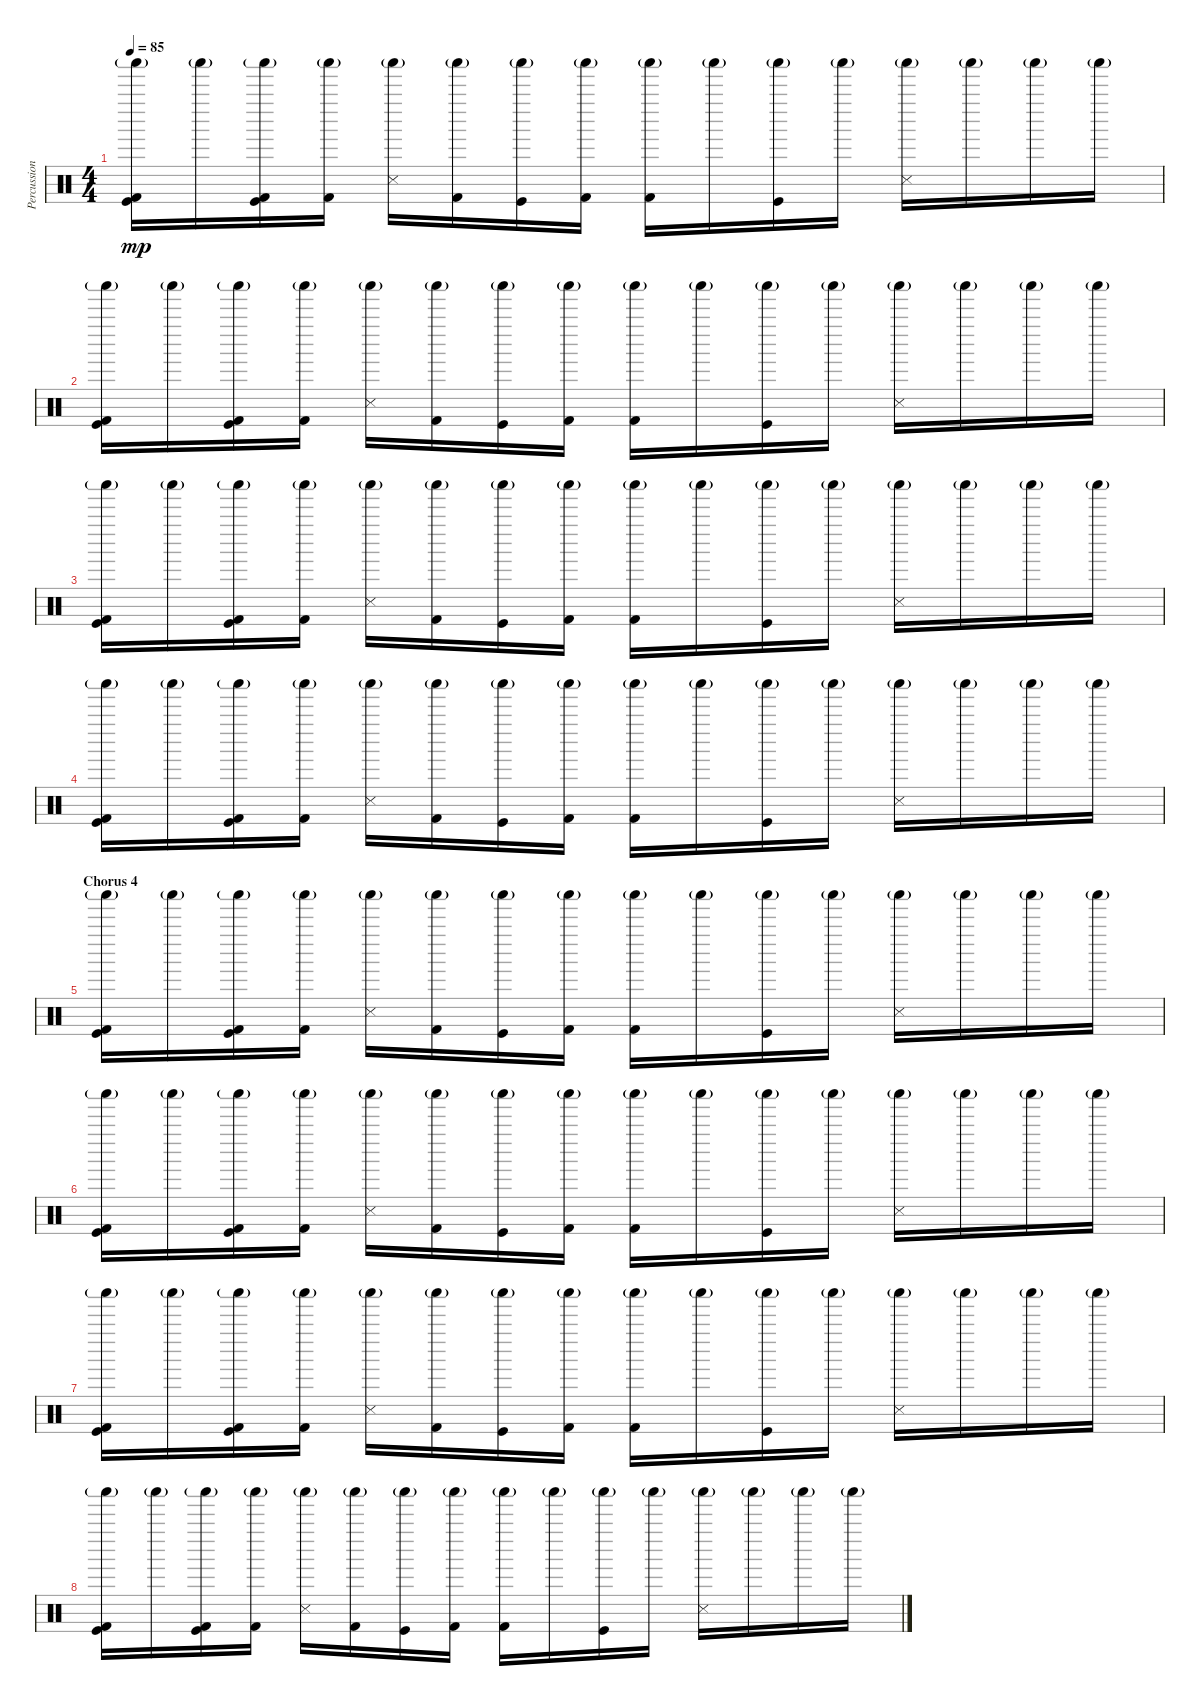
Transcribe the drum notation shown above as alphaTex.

\track ("Percussions" "Percussion") {instrument percussion}
\staff {score}
\articulation defaults
\ts (4 4)
\tempo 85
\clef neutral
\ks c
("Shaker (hit)"{g} "Kick (hit) 2" "Kick (hit)").16{dy mp} "Shaker (hit)"{g}.16 ("Shaker (hit)"{g} "Kick (hit) 2" "Kick (hit)").16 ("Shaker (hit)"{g} "Kick (hit) 2").16 ("Shaker (hit)"{g} "Snare (side stick) 3").16 ("Shaker (hit)"{g} "Kick (hit) 2").16 ("Shaker (hit)"{g} "Kick (hit)").16 ("Shaker (hit)"{g} "Kick (hit) 2").16 ("Shaker (hit)"{g} "Kick (hit) 2").16 "Shaker (hit)"{g}.16 ("Shaker (hit)"{g} "Kick (hit)").16 "Shaker (hit)"{g}.16 ("Shaker (hit)"{g} "Snare (side stick) 3").16 "Shaker (hit)"{g}.16 "Shaker (hit)"{g}.16 "Shaker (hit)"{g}.16 |
("Shaker (hit)"{g} "Kick (hit) 2" "Kick (hit)").16 "Shaker (hit)"{g}.16 ("Shaker (hit)"{g} "Kick (hit) 2" "Kick (hit)").16 ("Shaker (hit)"{g} "Kick (hit) 2").16 ("Shaker (hit)"{g} "Snare (side stick) 3").16 ("Shaker (hit)"{g} "Kick (hit) 2").16 ("Shaker (hit)"{g} "Kick (hit)").16 ("Shaker (hit)"{g} "Kick (hit) 2").16 ("Shaker (hit)"{g} "Kick (hit) 2").16 "Shaker (hit)"{g}.16 ("Shaker (hit)"{g} "Kick (hit)").16 "Shaker (hit)"{g}.16 ("Shaker (hit)"{g} "Snare (side stick) 3").16 "Shaker (hit)"{g}.16 "Shaker (hit)"{g}.16 "Shaker (hit)"{g}.16 |
("Shaker (hit)"{g} "Kick (hit) 2" "Kick (hit)").16 "Shaker (hit)"{g}.16 ("Shaker (hit)"{g} "Kick (hit) 2" "Kick (hit)").16 ("Shaker (hit)"{g} "Kick (hit) 2").16 ("Shaker (hit)"{g} "Snare (side stick) 3").16 ("Shaker (hit)"{g} "Kick (hit) 2").16 ("Shaker (hit)"{g} "Kick (hit)").16 ("Shaker (hit)"{g} "Kick (hit) 2").16 ("Shaker (hit)"{g} "Kick (hit) 2").16 "Shaker (hit)"{g}.16 ("Shaker (hit)"{g} "Kick (hit)").16 "Shaker (hit)"{g}.16 ("Shaker (hit)"{g} "Snare (side stick) 3").16 "Shaker (hit)"{g}.16 "Shaker (hit)"{g}.16 "Shaker (hit)"{g}.16 |
("Shaker (hit)"{g} "Kick (hit) 2" "Kick (hit)").16 "Shaker (hit)"{g}.16 ("Shaker (hit)"{g} "Kick (hit) 2" "Kick (hit)").16 ("Shaker (hit)"{g} "Kick (hit) 2").16 ("Shaker (hit)"{g} "Snare (side stick) 3").16 ("Shaker (hit)"{g} "Kick (hit) 2").16 ("Shaker (hit)"{g} "Kick (hit)").16 ("Shaker (hit)"{g} "Kick (hit) 2").16 ("Shaker (hit)"{g} "Kick (hit) 2").16 "Shaker (hit)"{g}.16 ("Shaker (hit)"{g} "Kick (hit)").16 "Shaker (hit)"{g}.16 ("Shaker (hit)"{g} "Snare (side stick) 3").16 "Shaker (hit)"{g}.16 "Shaker (hit)"{g}.16 "Shaker (hit)"{g}.16 |
\section ("" "Chorus 4")
("Shaker (hit)"{g} "Kick (hit) 2" "Kick (hit)").16 "Shaker (hit)"{g}.16 ("Shaker (hit)"{g} "Kick (hit) 2" "Kick (hit)").16 ("Shaker (hit)"{g} "Kick (hit) 2").16 ("Shaker (hit)"{g} "Snare (side stick) 3").16 ("Shaker (hit)"{g} "Kick (hit) 2").16 ("Shaker (hit)"{g} "Kick (hit)").16 ("Shaker (hit)"{g} "Kick (hit) 2").16 ("Shaker (hit)"{g} "Kick (hit) 2").16 "Shaker (hit)"{g}.16 ("Shaker (hit)"{g} "Kick (hit)").16 "Shaker (hit)"{g}.16 ("Shaker (hit)"{g} "Snare (side stick) 3").16 "Shaker (hit)"{g}.16 "Shaker (hit)"{g}.16 "Shaker (hit)"{g}.16 |
("Shaker (hit)"{g} "Kick (hit) 2" "Kick (hit)").16 "Shaker (hit)"{g}.16 ("Shaker (hit)"{g} "Kick (hit) 2" "Kick (hit)").16 ("Shaker (hit)"{g} "Kick (hit) 2").16 ("Shaker (hit)"{g} "Snare (side stick) 3").16 ("Shaker (hit)"{g} "Kick (hit) 2").16 ("Shaker (hit)"{g} "Kick (hit)").16 ("Shaker (hit)"{g} "Kick (hit) 2").16 ("Shaker (hit)"{g} "Kick (hit) 2").16 "Shaker (hit)"{g}.16 ("Shaker (hit)"{g} "Kick (hit)").16 "Shaker (hit)"{g}.16 ("Shaker (hit)"{g} "Snare (side stick) 3").16 "Shaker (hit)"{g}.16 "Shaker (hit)"{g}.16 "Shaker (hit)"{g}.16 |
("Shaker (hit)"{g} "Kick (hit) 2" "Kick (hit)").16 "Shaker (hit)"{g}.16 ("Shaker (hit)"{g} "Kick (hit) 2" "Kick (hit)").16 ("Shaker (hit)"{g} "Kick (hit) 2").16 ("Shaker (hit)"{g} "Snare (side stick) 3").16 ("Shaker (hit)"{g} "Kick (hit) 2").16 ("Shaker (hit)"{g} "Kick (hit)").16 ("Shaker (hit)"{g} "Kick (hit) 2").16 ("Shaker (hit)"{g} "Kick (hit) 2").16 "Shaker (hit)"{g}.16 ("Shaker (hit)"{g} "Kick (hit)").16 "Shaker (hit)"{g}.16 ("Shaker (hit)"{g} "Snare (side stick) 3").16 "Shaker (hit)"{g}.16 "Shaker (hit)"{g}.16 "Shaker (hit)"{g}.16 |
("Shaker (hit)"{g} "Kick (hit) 2" "Kick (hit)").16 "Shaker (hit)"{g}.16 ("Shaker (hit)"{g} "Kick (hit) 2" "Kick (hit)").16 ("Shaker (hit)"{g} "Kick (hit) 2").16 ("Shaker (hit)"{g} "Snare (side stick) 3").16 ("Shaker (hit)"{g} "Kick (hit) 2").16 ("Shaker (hit)"{g} "Kick (hit)").16 ("Shaker (hit)"{g} "Kick (hit) 2").16 ("Shaker (hit)"{g} "Kick (hit) 2").16 "Shaker (hit)"{g}.16 ("Shaker (hit)"{g} "Kick (hit)").16 "Shaker (hit)"{g}.16 ("Shaker (hit)"{g} "Snare (side stick) 3").16 "Shaker (hit)"{g}.16 "Shaker (hit)"{g}.16 "Shaker (hit)"{g}.16
